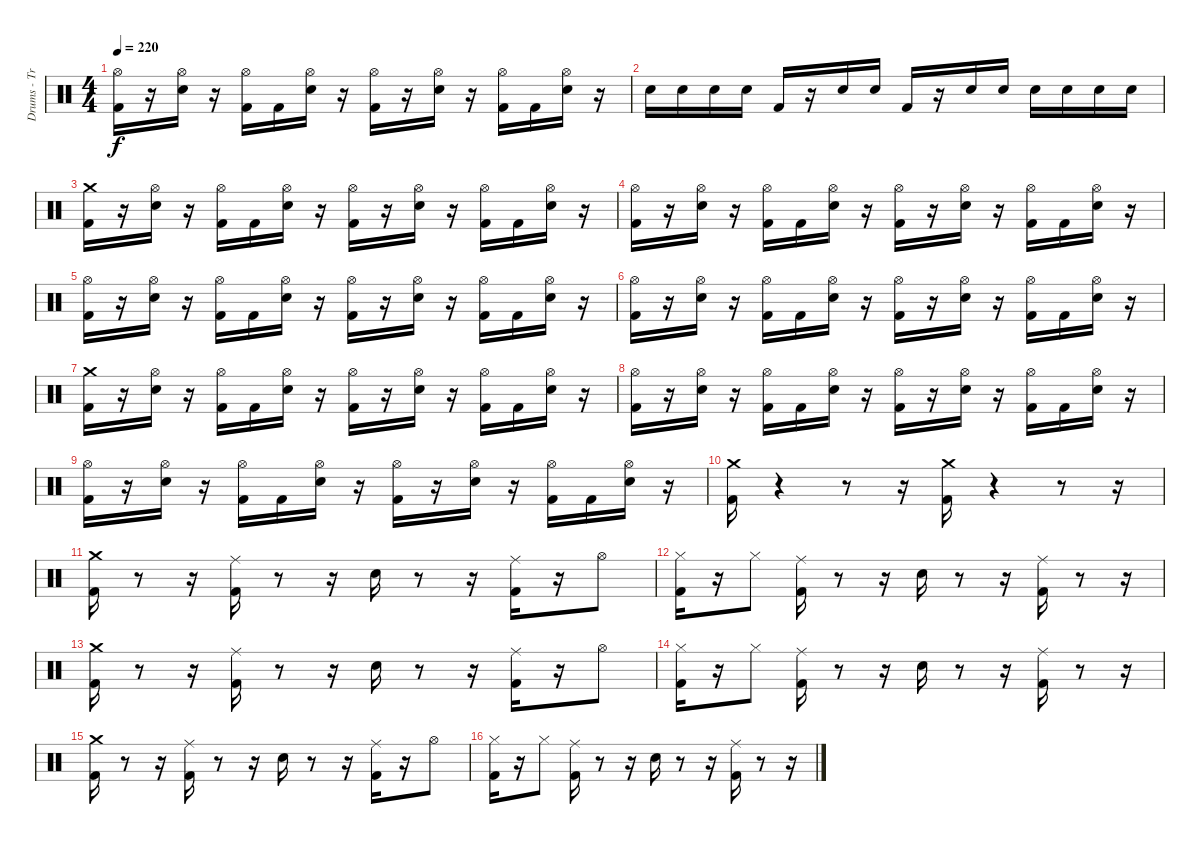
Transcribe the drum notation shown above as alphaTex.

\track ("Drums - Travis Barker" "Drums - Tr") {instrument percussion}
\staff {score}
\articulation defaults
\ts (4 4)
\tempo 220
\clef neutral
\ks c
("Kick (hit) 2" "Hi-Hat (open)").16{dy f} r.16 ("Electric Snare (hit)" "Hi-Hat (open)").16 r.16 ("Kick (hit) 2" "Hi-Hat (open)").16 "Kick (hit) 2".16 ("Electric Snare (hit)" "Hi-Hat (open)").16 r.16 ("Kick (hit) 2" "Hi-Hat (open)").16 r.16 ("Electric Snare (hit)" "Hi-Hat (open)").16 r.16 ("Kick (hit) 2" "Hi-Hat (open)").16 "Kick (hit) 2".16 ("Electric Snare (hit)" "Hi-Hat (open)").16 r.16 |
"Electric Snare (hit)".16 "Electric Snare (hit)".16 "Electric Snare (hit)".16 "Electric Snare (hit)".16 "Kick (hit) 2".16 r.16 "Electric Snare (hit)".16 "Electric Snare (hit)".16 "Kick (hit) 2".16 r.16 "Electric Snare (hit)".16 "Electric Snare (hit)".16 "Electric Snare (hit)".16 "Electric Snare (hit)".16 "Electric Snare (hit)".16 "Electric Snare (hit)".16 |
("Kick (hit) 2" "Crash medium (hit)").16 r.16 ("Electric Snare (hit)" "Hi-Hat (open)").16 r.16 ("Kick (hit) 2" "Hi-Hat (open)").16 "Kick (hit) 2".16 ("Electric Snare (hit)" "Hi-Hat (open)").16 r.16 ("Kick (hit) 2" "Hi-Hat (open)").16 r.16 ("Electric Snare (hit)" "Hi-Hat (open)").16 r.16 ("Kick (hit) 2" "Hi-Hat (open)").16 "Kick (hit) 2".16 ("Electric Snare (hit)" "Hi-Hat (open)").16 r.16 |
("Kick (hit) 2" "Hi-Hat (open)").16 r.16 ("Electric Snare (hit)" "Hi-Hat (open)").16 r.16 ("Kick (hit) 2" "Hi-Hat (open)").16 "Kick (hit) 2".16 ("Electric Snare (hit)" "Hi-Hat (open)").16 r.16 ("Kick (hit) 2" "Hi-Hat (open)").16 r.16 ("Electric Snare (hit)" "Hi-Hat (open)").16 r.16 ("Kick (hit) 2" "Hi-Hat (open)").16 "Kick (hit) 2".16 ("Electric Snare (hit)" "Hi-Hat (open)").16 r.16 |
("Kick (hit) 2" "Hi-Hat (open)").16 r.16 ("Electric Snare (hit)" "Hi-Hat (open)").16 r.16 ("Kick (hit) 2" "Hi-Hat (open)").16 "Kick (hit) 2".16 ("Electric Snare (hit)" "Hi-Hat (open)").16 r.16 ("Kick (hit) 2" "Hi-Hat (open)").16 r.16 ("Electric Snare (hit)" "Hi-Hat (open)").16 r.16 ("Kick (hit) 2" "Hi-Hat (open)").16 "Kick (hit) 2".16 ("Electric Snare (hit)" "Hi-Hat (open)").16 r.16 |
("Kick (hit) 2" "Hi-Hat (open)").16 r.16 ("Electric Snare (hit)" "Hi-Hat (open)").16 r.16 ("Kick (hit) 2" "Hi-Hat (open)").16 "Kick (hit) 2".16 ("Electric Snare (hit)" "Hi-Hat (open)").16 r.16 ("Kick (hit) 2" "Hi-Hat (open)").16 r.16 ("Electric Snare (hit)" "Hi-Hat (open)").16 r.16 ("Kick (hit) 2" "Hi-Hat (open)").16 "Kick (hit) 2".16 ("Electric Snare (hit)" "Hi-Hat (open)").16 r.16 |
("Kick (hit) 2" "Crash medium (hit)").16 r.16 ("Electric Snare (hit)" "Hi-Hat (open)").16 r.16 ("Kick (hit) 2" "Hi-Hat (open)").16 "Kick (hit) 2".16 ("Electric Snare (hit)" "Hi-Hat (open)").16 r.16 ("Kick (hit) 2" "Hi-Hat (open)").16 r.16 ("Electric Snare (hit)" "Hi-Hat (open)").16 r.16 ("Kick (hit) 2" "Hi-Hat (open)").16 "Kick (hit) 2".16 ("Electric Snare (hit)" "Hi-Hat (open)").16 r.16 |
("Kick (hit) 2" "Hi-Hat (open)").16 r.16 ("Electric Snare (hit)" "Hi-Hat (open)").16 r.16 ("Kick (hit) 2" "Hi-Hat (open)").16 "Kick (hit) 2".16 ("Electric Snare (hit)" "Hi-Hat (open)").16 r.16 ("Kick (hit) 2" "Hi-Hat (open)").16 r.16 ("Electric Snare (hit)" "Hi-Hat (open)").16 r.16 ("Kick (hit) 2" "Hi-Hat (open)").16 "Kick (hit) 2".16 ("Electric Snare (hit)" "Hi-Hat (open)").16 r.16 |
("Kick (hit) 2" "Hi-Hat (open)").16 r.16 ("Electric Snare (hit)" "Hi-Hat (open)").16 r.16 ("Kick (hit) 2" "Hi-Hat (open)").16 "Kick (hit) 2".16 ("Electric Snare (hit)" "Hi-Hat (open)").16 r.16 ("Kick (hit) 2" "Hi-Hat (open)").16 r.16 ("Electric Snare (hit)" "Hi-Hat (open)").16 r.16 ("Kick (hit) 2" "Hi-Hat (open)").16 "Kick (hit) 2".16 ("Electric Snare (hit)" "Hi-Hat (open)").16 r.16 |
("Kick (hit) 2" "Crash medium (hit)").16 r.4 r.8 r.16 ("Kick (hit) 2" "Crash medium (hit)").16 r.4 r.8 r.16 |
("Crash medium (hit)" "Kick (hit) 2").16 r.8 r.16 ("Ride (middle)" "Kick (hit) 2").16 r.8 r.16 "Electric Snare (hit)".16 r.8 r.16 ("Ride (middle)" "Kick (hit) 2").16 r.16 "Hi-Hat (open)".8 |
("Kick (hit) 2" "Hi-Hat (closed)").16 r.16 "Hi-Hat (closed)".8 ("Ride (middle)" "Kick (hit) 2").16 r.8 r.16 "Electric Snare (hit)".16 r.8 r.16 ("Ride (middle)" "Kick (hit) 2").16 r.8 r.16 |
("Crash medium (hit)" "Kick (hit) 2").16 r.8 r.16 ("Ride (middle)" "Kick (hit) 2").16 r.8 r.16 "Electric Snare (hit)".16 r.8 r.16 ("Ride (middle)" "Kick (hit) 2").16 r.16 "Hi-Hat (open)".8 |
("Kick (hit) 2" "Hi-Hat (closed)").16 r.16 "Hi-Hat (closed)".8 ("Ride (middle)" "Kick (hit) 2").16 r.8 r.16 "Electric Snare (hit)".16 r.8 r.16 ("Ride (middle)" "Kick (hit) 2").16 r.8 r.16 |
("Crash medium (hit)" "Kick (hit) 2").16 r.8 r.16 ("Ride (middle)" "Kick (hit) 2").16 r.8 r.16 "Electric Snare (hit)".16 r.8 r.16 ("Ride (middle)" "Kick (hit) 2").16 r.16 "Hi-Hat (open)".8 |
("Kick (hit) 2" "Hi-Hat (closed)").16 r.16 "Hi-Hat (closed)".8 ("Ride (middle)" "Kick (hit) 2").16 r.8 r.16 "Electric Snare (hit)".16 r.8 r.16 ("Ride (middle)" "Kick (hit) 2").16 r.8 r.16
